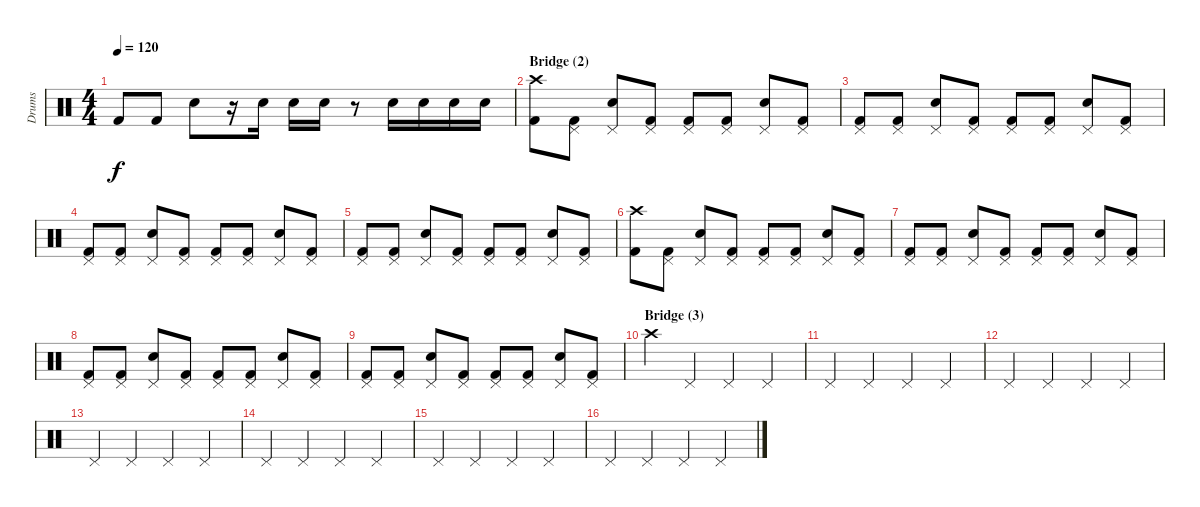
\track ("Drums" "Drums") {instrument percussion}
\staff {score}
\articulation defaults
\ts (4 4)
\tempo 120
\clef neutral
\ks c "Kick (hit) 2".8{dy f} "Kick (hit) 2".8 "Snare (hit) 2".8
r.16 "Snare (hit) 2".16 "Snare (hit) 2".16 "Snare (hit) 2".16 r.8 "Snare (hit) 2".16 "Snare (hit) 2".16 "Snare (hit) 2".16 "Snare (hit) 2".16 |
\section ("" "Bridge (2)")
("Crash high (hit)" "Kick (hit) 2").8 ("Pedal Hi-Hat (hit)" "Kick (hit) 2").8 ("Pedal Hi-Hat (hit)" "Snare (hit) 2").8 ("Pedal Hi-Hat (hit)" "Kick (hit) 2").8 ("Pedal Hi-Hat (hit)" "Kick (hit) 2").8 ("Pedal Hi-Hat (hit)" "Kick (hit) 2").8 ("Pedal Hi-Hat (hit)" "Snare (hit) 2").8 ("Pedal Hi-Hat (hit)" "Kick (hit) 2").8 |
("Pedal Hi-Hat (hit)" "Kick (hit) 2").8 ("Pedal Hi-Hat (hit)" "Kick (hit) 2").8 ("Pedal Hi-Hat (hit)" "Snare (hit) 2").8 ("Pedal Hi-Hat (hit)" "Kick (hit) 2").8 ("Pedal Hi-Hat (hit)" "Kick (hit) 2").8 ("Pedal Hi-Hat (hit)" "Kick (hit) 2").8 ("Pedal Hi-Hat (hit)" "Snare (hit) 2").8 ("Pedal Hi-Hat (hit)" "Kick (hit) 2").8 |
("Pedal Hi-Hat (hit)" "Kick (hit) 2").8 ("Pedal Hi-Hat (hit)" "Kick (hit) 2").8 ("Pedal Hi-Hat (hit)" "Snare (hit) 2").8 ("Pedal Hi-Hat (hit)" "Kick (hit) 2").8 ("Pedal Hi-Hat (hit)" "Kick (hit) 2").8 ("Pedal Hi-Hat (hit)" "Kick (hit) 2").8 ("Pedal Hi-Hat (hit)" "Snare (hit) 2").8 ("Pedal Hi-Hat (hit)" "Kick (hit) 2").8 |
("Pedal Hi-Hat (hit)" "Kick (hit) 2").8 ("Pedal Hi-Hat (hit)" "Kick (hit) 2").8 ("Pedal Hi-Hat (hit)" "Snare (hit) 2").8 ("Pedal Hi-Hat (hit)" "Kick (hit) 2").8 ("Pedal Hi-Hat (hit)" "Kick (hit) 2").8 ("Pedal Hi-Hat (hit)" "Kick (hit) 2").8 ("Pedal Hi-Hat (hit)" "Snare (hit) 2").8 ("Pedal Hi-Hat (hit)" "Kick (hit) 2").8 |
("Crash high (hit)" "Kick (hit) 2").8 ("Pedal Hi-Hat (hit)" "Kick (hit) 2").8 ("Pedal Hi-Hat (hit)" "Snare (hit) 2").8 ("Pedal Hi-Hat (hit)" "Kick (hit) 2").8 ("Pedal Hi-Hat (hit)" "Kick (hit) 2").8 ("Pedal Hi-Hat (hit)" "Kick (hit) 2").8 ("Pedal Hi-Hat (hit)" "Snare (hit) 2").8 ("Pedal Hi-Hat (hit)" "Kick (hit) 2").8 |
("Pedal Hi-Hat (hit)" "Kick (hit) 2").8 ("Pedal Hi-Hat (hit)" "Kick (hit) 2").8 ("Pedal Hi-Hat (hit)" "Snare (hit) 2").8 ("Pedal Hi-Hat (hit)" "Kick (hit) 2").8 ("Pedal Hi-Hat (hit)" "Kick (hit) 2").8 ("Pedal Hi-Hat (hit)" "Kick (hit) 2").8 ("Pedal Hi-Hat (hit)" "Snare (hit) 2").8 ("Pedal Hi-Hat (hit)" "Kick (hit) 2").8 |
("Pedal Hi-Hat (hit)" "Kick (hit) 2").8 ("Pedal Hi-Hat (hit)" "Kick (hit) 2").8 ("Pedal Hi-Hat (hit)" "Snare (hit) 2").8 ("Pedal Hi-Hat (hit)" "Kick (hit) 2").8 ("Pedal Hi-Hat (hit)" "Kick (hit) 2").8 ("Pedal Hi-Hat (hit)" "Kick (hit) 2").8 ("Pedal Hi-Hat (hit)" "Snare (hit) 2").8 ("Pedal Hi-Hat (hit)" "Kick (hit) 2").8 |
("Pedal Hi-Hat (hit)" "Kick (hit) 2").8 ("Pedal Hi-Hat (hit)" "Kick (hit) 2").8 ("Pedal Hi-Hat (hit)" "Snare (hit) 2").8 ("Pedal Hi-Hat (hit)" "Kick (hit) 2").8 ("Pedal Hi-Hat (hit)" "Kick (hit) 2").8 ("Pedal Hi-Hat (hit)" "Kick (hit) 2").8 ("Pedal Hi-Hat (hit)" "Snare (hit) 2").8 ("Pedal Hi-Hat (hit)" "Kick (hit) 2").8 |
\section ("" "Bridge (3)")
"Crash high (hit)".4 "Pedal Hi-Hat (hit)".4 "Pedal Hi-Hat (hit)".4 "Pedal Hi-Hat (hit)".4 |
"Pedal Hi-Hat (hit)".4 "Pedal Hi-Hat (hit)".4 "Pedal Hi-Hat (hit)".4 "Pedal Hi-Hat (hit)".4 |
"Pedal Hi-Hat (hit)".4 "Pedal Hi-Hat (hit)".4 "Pedal Hi-Hat (hit)".4 "Pedal Hi-Hat (hit)".4 |
"Pedal Hi-Hat (hit)".4 "Pedal Hi-Hat (hit)".4 "Pedal Hi-Hat (hit)".4 "Pedal Hi-Hat (hit)".4 |
"Pedal Hi-Hat (hit)".4 "Pedal Hi-Hat (hit)".4 "Pedal Hi-Hat (hit)".4 "Pedal Hi-Hat (hit)".4 |
"Pedal Hi-Hat (hit)".4 "Pedal Hi-Hat (hit)".4 "Pedal Hi-Hat (hit)".4 "Pedal Hi-Hat (hit)".4 |
"Pedal Hi-Hat (hit)".4 "Pedal Hi-Hat (hit)".4 "Pedal Hi-Hat (hit)".4 "Pedal Hi-Hat (hit)".4
